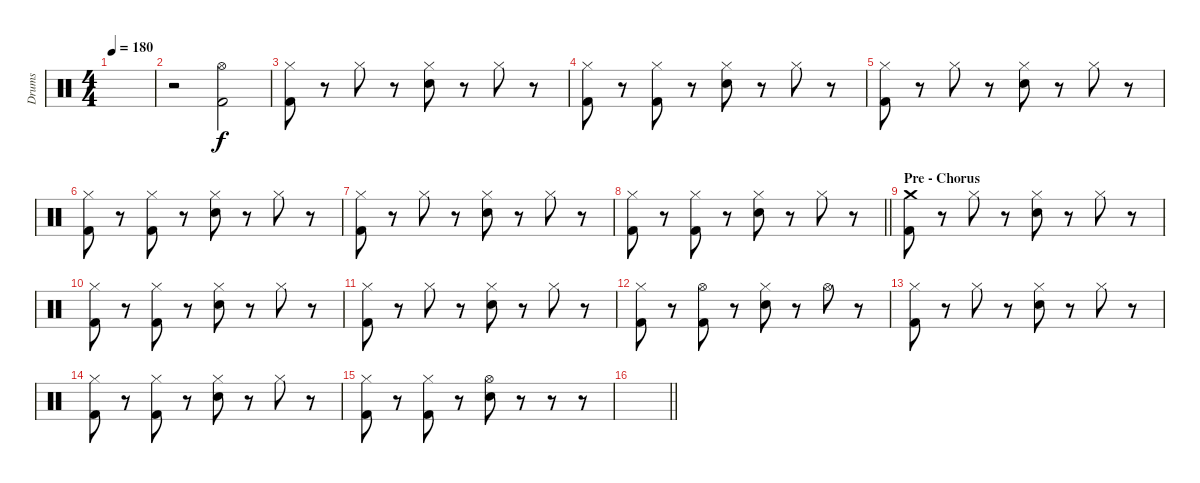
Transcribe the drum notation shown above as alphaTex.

\track ("Drums" "Drums") {instrument percussion}
\staff {score}
\articulation defaults
\ts (4 4)
\tempo 180
\clef neutral
\ks c
|
r.2 ("Hi-Hat (open)" "Kick (hit) 2").2 |
("Hi-Hat (closed)" "Kick (hit) 2").8 r.8 "Hi-Hat (closed)".8 r.8 ("Hi-Hat (closed)" "Electric Snare (hit)").8 r.8 "Hi-Hat (closed)".8 r.8 |
("Hi-Hat (closed)" "Kick (hit) 2").8 r.8 ("Hi-Hat (closed)" "Kick (hit) 2").8 r.8 ("Hi-Hat (closed)" "Electric Snare (hit)").8 r.8 "Hi-Hat (closed)".8 r.8 |
("Hi-Hat (closed)" "Kick (hit) 2").8 r.8 "Hi-Hat (closed)".8 r.8 ("Hi-Hat (closed)" "Electric Snare (hit)").8 r.8 "Hi-Hat (closed)".8 r.8 |
("Hi-Hat (closed)" "Kick (hit) 2").8 r.8 ("Hi-Hat (closed)" "Kick (hit) 2").8 r.8 ("Hi-Hat (closed)" "Electric Snare (hit)").8 r.8 "Hi-Hat (closed)".8 r.8 |
("Hi-Hat (closed)" "Kick (hit) 2").8 r.8 "Hi-Hat (closed)".8 r.8 ("Hi-Hat (closed)" "Electric Snare (hit)").8 r.8 "Hi-Hat (closed)".8 r.8 |
\barLineRight lightlight
("Hi-Hat (closed)" "Kick (hit) 2").8 r.8 ("Hi-Hat (closed)" "Kick (hit) 2").8 r.8 ("Hi-Hat (closed)" "Electric Snare (hit)").8 r.8 "Hi-Hat (closed)".8 r.8 |
\section ("" "Pre - Chorus")
("Crash medium (hit)" "Kick (hit) 2").8 r.8 "Hi-Hat (closed)".8 r.8 ("Hi-Hat (closed)" "Electric Snare (hit)").8 r.8 "Hi-Hat (closed)".8 r.8 |
("Hi-Hat (closed)" "Kick (hit) 2").8 r.8 ("Hi-Hat (closed)" "Kick (hit) 2").8 r.8 ("Hi-Hat (closed)" "Electric Snare (hit)").8 r.8 "Hi-Hat (closed)".8 r.8 |
("Hi-Hat (closed)" "Kick (hit) 2").8 r.8 "Hi-Hat (closed)".8 r.8 ("Hi-Hat (closed)" "Electric Snare (hit)").8 r.8 "Hi-Hat (closed)".8 r.8 |
("Hi-Hat (closed)" "Kick (hit) 2").8 r.8 ("Hi-Hat (open)" "Kick (hit) 2").8 r.8 ("Hi-Hat (closed)" "Electric Snare (hit)").8 r.8 "Hi-Hat (open)".8 r.8 |
("Hi-Hat (closed)" "Kick (hit) 2").8 r.8 "Hi-Hat (closed)".8 r.8 ("Hi-Hat (closed)" "Electric Snare (hit)").8 r.8 "Hi-Hat (closed)".8 r.8 |
("Hi-Hat (closed)" "Kick (hit) 2").8 r.8 ("Hi-Hat (closed)" "Kick (hit) 2").8 r.8 ("Hi-Hat (closed)" "Electric Snare (hit)").8 r.8 "Hi-Hat (closed)".8 r.8 |
("Hi-Hat (closed)" "Kick (hit) 2").8 r.8 ("Hi-Hat (closed)" "Kick (hit) 2").8 r.8 ("Hi-Hat (open)" "Electric Snare (hit)").8 r.8 r.8 r.8 |
\barLineRight lightlight
